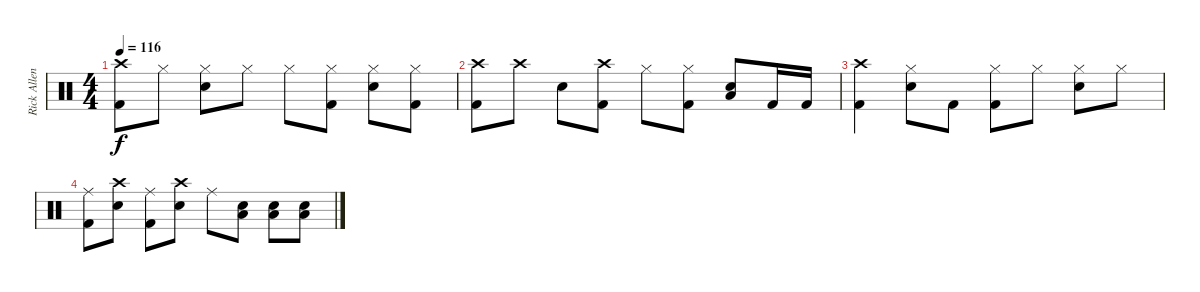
\track ("Rick Allen" "Rick Allen") {instrument percussion}
\staff {score}
\articulation defaults
\ts (4 4)
\tempo 116
\clef neutral
\ks c
("Crash high (hit)" "Kick (hit) 2").8{dy f volume 0} "Hi-Hat (closed)".8 ("Hi-Hat (closed)" "Electric Snare (hit)").8 "Hi-Hat (closed)".8 "Hi-Hat (closed)".8 ("Hi-Hat (closed)" "Kick (hit) 2").8 ("Hi-Hat (closed)" "Electric Snare (hit)").8 ("Hi-Hat (closed)" "Kick (hit) 2").8 |
("Crash high (hit)" "Kick (hit) 2").8 "Crash high (hit)".8 "Electric Snare (hit)".8 ("Crash high (hit)" "Kick (hit) 2").8 "Hi-Hat (closed)".8 ("Hi-Hat (closed)" "Kick (hit) 2").8 ("Low Tom (hit)" "Electric Snare (hit)").8 "Kick (hit) 2".16 "Kick (hit) 2".16 |
("Crash high (hit)" "Kick (hit) 2").4 ("Hi-Hat (closed)" "Electric Snare (hit)").8 "Kick (hit) 2".8 ("Hi-Hat (closed)" "Kick (hit) 2").8 "Hi-Hat (closed)".8 ("Hi-Hat (closed)" "Electric Snare (hit)").8 "Hi-Hat (closed)".8 |
("Ride (middle)" "Kick (hit) 2").8 ("Crash high (hit)" "Electric Snare (hit)").8 ("Ride (middle)" "Kick (hit) 2").8 ("Crash high (hit)" "Electric Snare (hit)").8 "Ride (middle)".8 ("Low Tom (hit)" "Electric Snare (hit)").8 ("Low Tom (hit)" "Electric Snare (hit)").8 ("Low Tom (hit)" "Electric Snare (hit)").8
